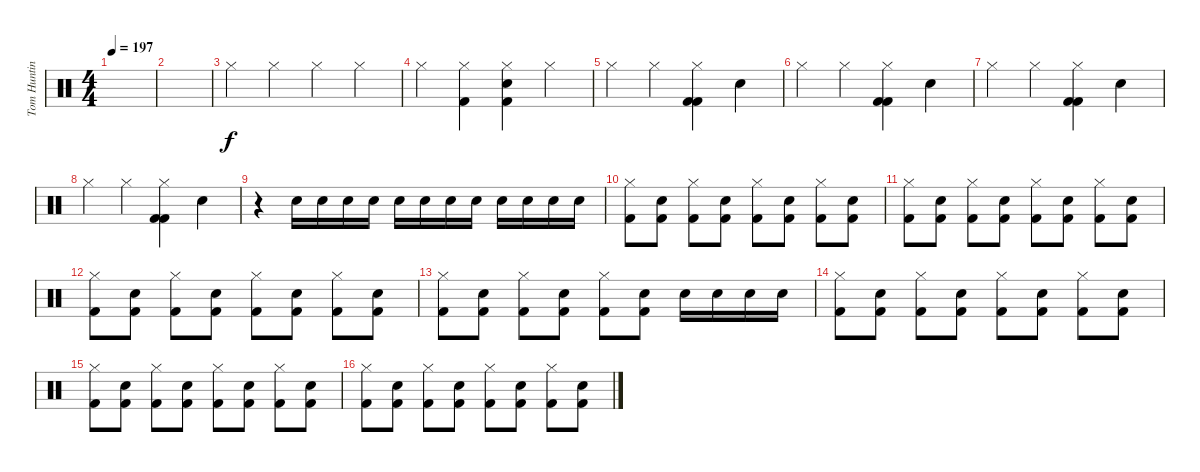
\track ("Tom Hunting" "Tom Huntin") {instrument percussion}
\staff {score}
\articulation defaults
\ts (4 4)
\tempo 197
\clef neutral
\ks c
|
|
"Hi-Hat (closed)".4 "Hi-Hat (closed)".4 "Hi-Hat (closed)".4 "Hi-Hat (closed)".4 |
"Hi-Hat (closed)".4 ("Hi-Hat (closed)" "Kick (hit) 2").4 ("Hi-Hat (closed)" "Snare (hit) 2" "Kick (hit) 2").4 "Hi-Hat (closed)".4 |
"Hi-Hat (closed)".4 "Hi-Hat (closed)".4 ("Hi-Hat (closed)" "Kick (hit) 2" "Kick (hit) 2").4 "Snare (hit) 2".4 |
"Hi-Hat (closed)".4 "Hi-Hat (closed)".4 ("Hi-Hat (closed)" "Kick (hit) 2" "Kick (hit) 2").4 "Snare (hit) 2".4 |
"Hi-Hat (closed)".4 "Hi-Hat (closed)".4 ("Hi-Hat (closed)" "Kick (hit) 2" "Kick (hit) 2").4 "Snare (hit) 2".4 |
"Hi-Hat (closed)".4 "Hi-Hat (closed)".4 ("Hi-Hat (closed)" "Kick (hit) 2" "Kick (hit) 2").4 "Snare (hit) 2".4 |
r.4 "Snare (hit) 2".16 "Snare (hit) 2".16 "Snare (hit) 2".16 "Snare (hit) 2".16 "Snare (hit) 2".16 "Snare (hit) 2".16 "Snare (hit) 2".16 "Snare (hit) 2".16 "Snare (hit) 2".16 "Snare (hit) 2".16 "Snare (hit) 2".16 "Snare (hit) 2".16 |
("Hi-Hat (closed)" "Kick (hit) 2").8 ("Snare (hit) 2" "Kick (hit) 2").8 ("Hi-Hat (closed)" "Kick (hit) 2").8 ("Snare (hit) 2" "Kick (hit) 2").8 ("Hi-Hat (closed)" "Kick (hit) 2").8 ("Snare (hit) 2" "Kick (hit) 2").8 ("Hi-Hat (closed)" "Kick (hit) 2").8 ("Snare (hit) 2" "Kick (hit) 2").8 |
("Hi-Hat (closed)" "Kick (hit) 2").8 ("Snare (hit) 2" "Kick (hit) 2").8 ("Hi-Hat (closed)" "Kick (hit) 2").8 ("Snare (hit) 2" "Kick (hit) 2").8 ("Hi-Hat (closed)" "Kick (hit) 2").8 ("Snare (hit) 2" "Kick (hit) 2").8 ("Hi-Hat (closed)" "Kick (hit) 2").8 ("Snare (hit) 2" "Kick (hit) 2").8 |
("Hi-Hat (closed)" "Kick (hit) 2").8 ("Snare (hit) 2" "Kick (hit) 2").8 ("Hi-Hat (closed)" "Kick (hit) 2").8 ("Snare (hit) 2" "Kick (hit) 2").8 ("Hi-Hat (closed)" "Kick (hit) 2").8 ("Snare (hit) 2" "Kick (hit) 2").8 ("Hi-Hat (closed)" "Kick (hit) 2").8 ("Snare (hit) 2" "Kick (hit) 2").8 |
("Hi-Hat (closed)" "Kick (hit) 2").8 ("Snare (hit) 2" "Kick (hit) 2").8 ("Hi-Hat (closed)" "Kick (hit) 2").8 ("Snare (hit) 2" "Kick (hit) 2").8 ("Hi-Hat (closed)" "Kick (hit) 2").8 ("Snare (hit) 2" "Kick (hit) 2").8 "Snare (hit) 2".16 "Snare (hit) 2".16 "Snare (hit) 2".16 "Snare (hit) 2".16 |
("Hi-Hat (closed)" "Kick (hit) 2").8 ("Snare (hit) 2" "Kick (hit) 2").8 ("Hi-Hat (closed)" "Kick (hit) 2").8 ("Snare (hit) 2" "Kick (hit) 2").8 ("Hi-Hat (closed)" "Kick (hit) 2").8 ("Snare (hit) 2" "Kick (hit) 2").8 ("Hi-Hat (closed)" "Kick (hit) 2").8 ("Snare (hit) 2" "Kick (hit) 2").8 |
("Hi-Hat (closed)" "Kick (hit) 2").8 ("Snare (hit) 2" "Kick (hit) 2").8 ("Hi-Hat (closed)" "Kick (hit) 2").8 ("Snare (hit) 2" "Kick (hit) 2").8 ("Hi-Hat (closed)" "Kick (hit) 2").8 ("Snare (hit) 2" "Kick (hit) 2").8 ("Hi-Hat (closed)" "Kick (hit) 2").8 ("Snare (hit) 2" "Kick (hit) 2").8 |
("Hi-Hat (closed)" "Kick (hit) 2").8 ("Snare (hit) 2" "Kick (hit) 2").8 ("Hi-Hat (closed)" "Kick (hit) 2").8 ("Snare (hit) 2" "Kick (hit) 2").8 ("Hi-Hat (closed)" "Kick (hit) 2").8 ("Snare (hit) 2" "Kick (hit) 2").8 ("Hi-Hat (closed)" "Kick (hit) 2").8 ("Snare (hit) 2" "Kick (hit) 2").8
